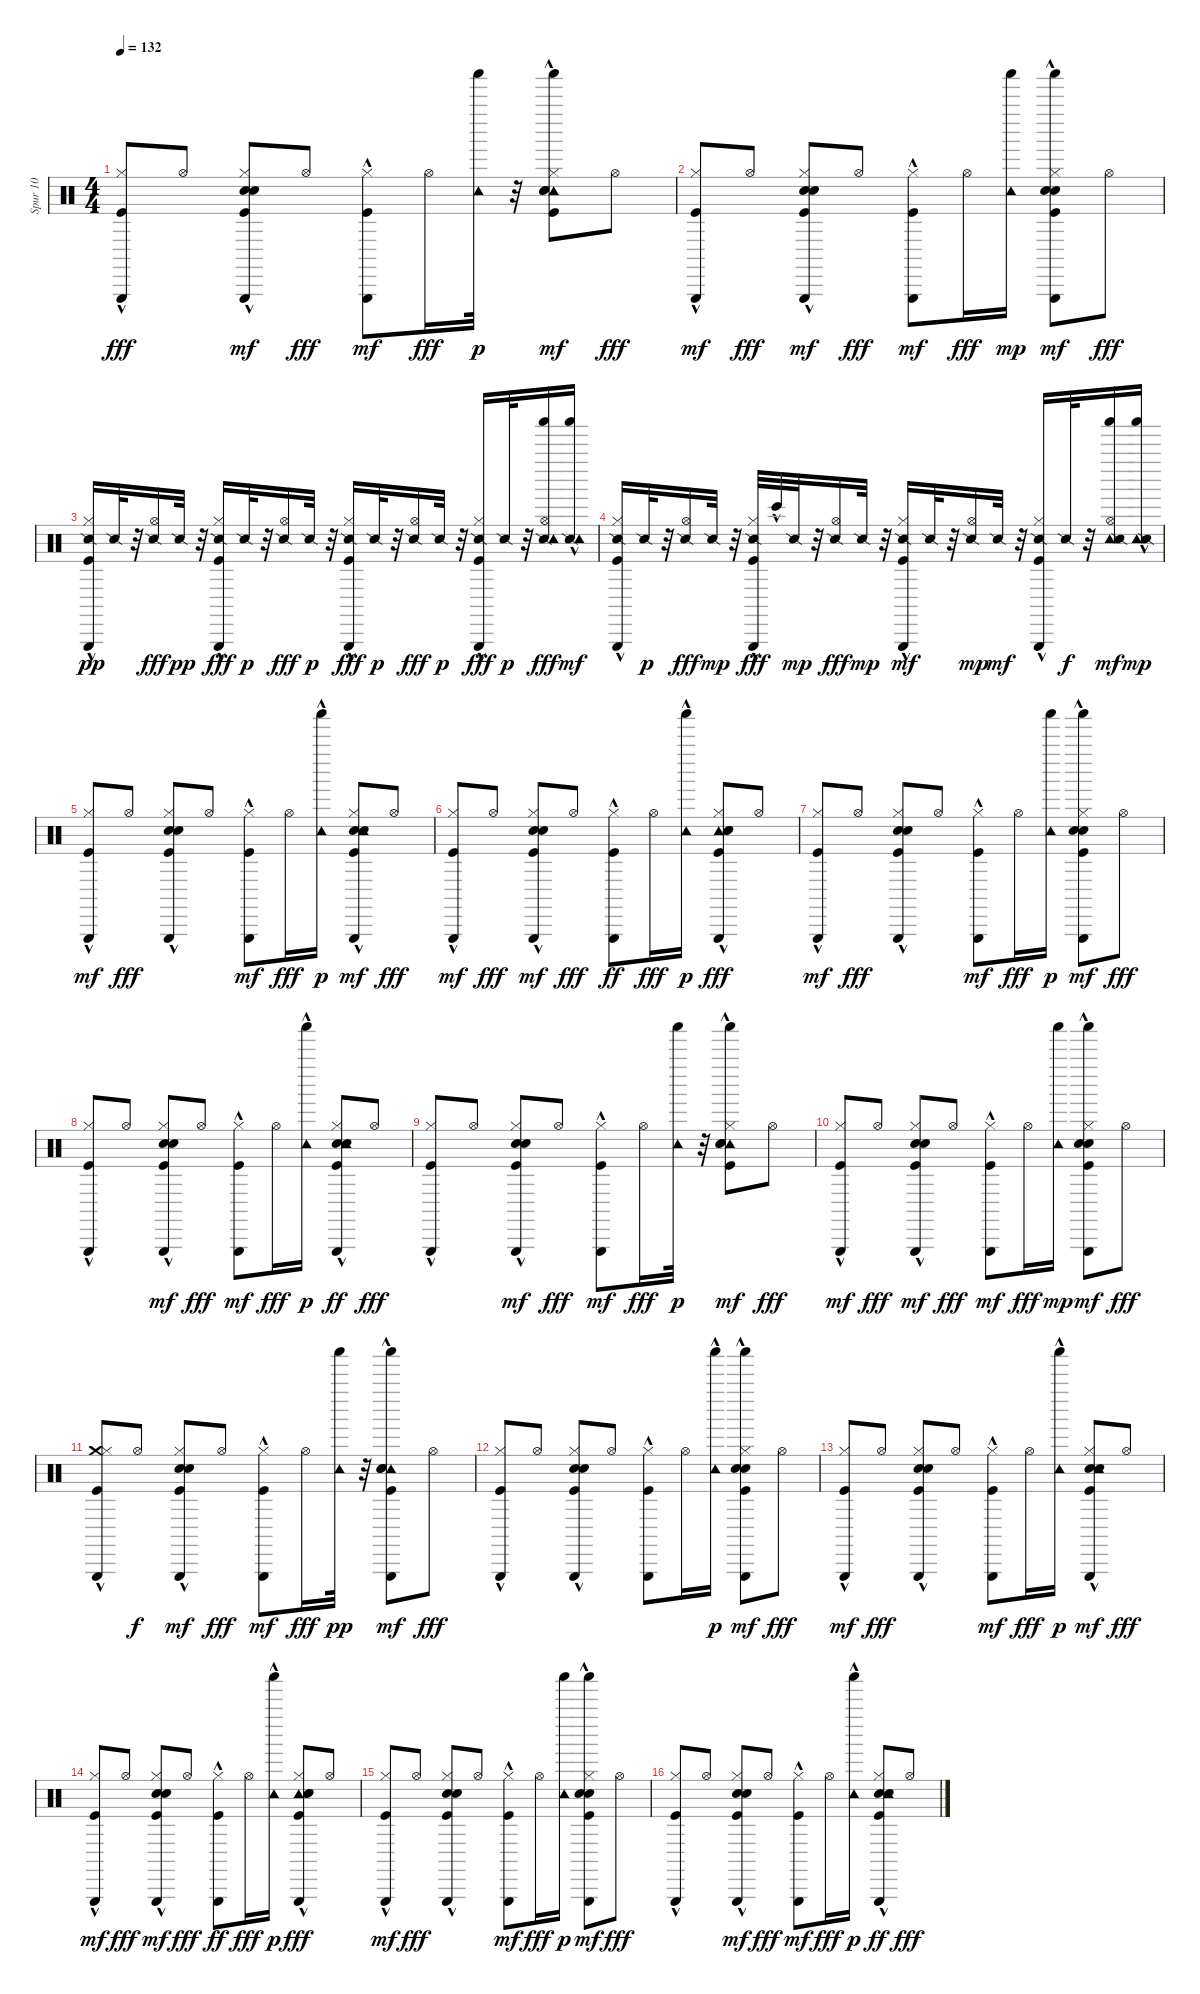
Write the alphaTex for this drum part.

\track ("Spur 10" "Spur 10") {instrument percussion}
\staff {score}
\articulation defaults
\ts (4 4)
\tempo 132
\clef neutral
\ks c
("Triangle (hit)"{hac} "Kick (hit)"{hac} "Hi-Hat (closed)").8{dy fff} "Hi-Hat (open)".8 ("Kick (hit)"{hac} "Hand Clap (hit)"{hac} "Snare (hit) 2"{hac} "Hi-Hat (closed)" "Triangle (hit)"{hac}).8{dy mf} "Hi-Hat (open)".8{dy fff} ("Hi-Hat (closed)" "Kick (hit)"{hac} "Triangle (hit)"{hac}).8{dy mf} "Hi-Hat (open)".16{dy fff} ("Tambourine (hit)" "Shaker (hit)").32{dy p} r.32 ("Shaker (hit)" "Tambourine (hit)"{hac} "Hi-Hat (closed)" "Kick (hit)"{hac} "Hand Clap (hit)"{hac} "Snare (hit) 2"{hac}).8{dy mf} "Hi-Hat (open)".8{dy fff} |
("Hi-Hat (closed)" "Kick (hit)"{hac} "Triangle (hit)"{hac}).8{dy mf} "Hi-Hat (open)".8{dy fff} ("Hi-Hat (closed)" "Kick (hit)"{hac} "Snare (hit) 2"{hac} "Hand Clap (hit)"{hac} "Triangle (hit)"{hac}).8{dy mf} "Hi-Hat (open)".8{dy fff} ("Kick (hit)"{hac} "Hi-Hat (closed)" "Triangle (hit)"{hac}).8{dy mf} "Hi-Hat (open)".16{dy fff} ("Shaker (hit)" "Tambourine (hit)").16{dy mp} ("Shaker (hit)"{hac} "Triangle (hit)"{hac} "Hi-Hat (closed)" "Kick (hit)" "Hand Clap (hit)" "Snare (hit) 2").8{dy mf} "Hi-Hat (open)".8{dy fff} |
("Triangle (hit)"{hac} "Hi-Hat (closed)" "Kick (hit)" "Snare (side stick) 2").16{dy pp} "Snare (side stick) 2".32 r.32 ("Snare (side stick) 2" "Hi-Hat (open)").16{dy fff} "Snare (side stick) 2".32{dy pp} r.32 ("Triangle (hit)"{hac} "Kick (hit)" "Snare (side stick) 2" "Hi-Hat (closed)").16{dy fff} "Snare (side stick) 2".32{dy p} r.32 ("Snare (side stick) 2" "Hi-Hat (open)").16{dy fff} "Snare (side stick) 2".32{dy p} r.32 ("Snare (side stick) 2" "Hi-Hat (closed)" "Kick (hit)" "Triangle (hit)"{hac}).16{dy fff} "Snare (side stick) 2".32{dy p} r.32 ("Snare (side stick) 2" "Hi-Hat (open)").16{dy fff} "Snare (side stick) 2".32{dy p} r.32 ("Triangle (hit)"{hac} "Hi-Hat (closed)" "Snare (side stick) 2" "Kick (hit)").16{dy fff} "Snare (side stick) 2".32{dy p} r.32 ("Shaker (hit)" "Snare (side stick) 2" "Tambourine (hit)" "Hi-Hat (open)").16{dy fff} ("Shaker (hit)"{hac} "Snare (side stick) 2" "Tambourine (hit)").16{dy mf} |
("Snare (side stick) 2" "Hi-Hat (closed)" "Kick (hit)" "Triangle (hit)"{hac}).16 "Snare (side stick) 2".32{dy p} r.32 ("Snare (side stick) 2" "Hi-Hat (open)").16{dy fff} "Snare (side stick) 2".32{dy mp} r.32 ("Triangle (hit)"{hac} "Kick (hit)" "Snare (side stick) 2" "Hi-Hat (closed)").32{dy fff} "Bongo High (hit)"{hac}.32 "Snare (side stick) 2".32{dy mp} r.32 ("Snare (side stick) 2" "Hi-Hat (open)").16{dy fff} "Snare (side stick) 2".32{dy mp} r.32 ("Triangle (hit)"{hac} "Hi-Hat (closed)" "Kick (hit)" "Snare (side stick) 2").16{dy mf} "Snare (side stick) 2".32 r.32 ("Hi-Hat (open)" "Snare (side stick) 2").16{dy mp} "Snare (side stick) 2".32{dy mf} r.32 ("Kick (hit)"{hac} "Hi-Hat (closed)" "Snare (side stick) 2" "Triangle (hit)"{hac}).16 "Snare (side stick) 2".32{dy f} r.32 ("Hi-Hat (open)" "Shaker (hit)" "Tambourine (hit)" "Snare (side stick) 2").16{dy mf} ("Shaker (hit)"{hac} "Tambourine (hit)" "Snare (side stick) 2").16{dy mp} |
("Kick (hit)"{hac} "Hi-Hat (closed)" "Triangle (hit)"{hac}).8{dy mf} "Hi-Hat (open)".8{dy fff} ("Triangle (hit)"{hac} "Kick (hit)"{hac} "Hand Clap (hit)"{hac} "Snare (hit) 2"{hac} "Hi-Hat (closed)").8 "Hi-Hat (open)".8 ("Kick (hit)"{hac} "Hi-Hat (closed)" "Triangle (hit)"{hac}).8{dy mf} "Hi-Hat (open)".16{dy fff} ("Tambourine (hit)" "Shaker (hit)"{hac}).16{dy p} ("Kick (hit)"{hac} "Snare (hit) 2"{hac} "Hand Clap (hit)"{hac} "Hi-Hat (closed)" "Triangle (hit)"{hac} "Tambourine (hit)"{hac}).8{dy mf} "Hi-Hat (open)".8{dy fff} |
("Kick (hit)"{hac} "Hi-Hat (closed)" "Triangle (hit)"{hac}).8{dy mf} "Hi-Hat (open)".8{dy fff} ("Triangle (hit)"{hac} "Hi-Hat (closed)" "Kick (hit)"{hac} "Hand Clap (hit)"{hac} "Snare (hit) 2"{hac}).8{dy mf} "Hi-Hat (open)".8{dy fff} ("Triangle (hit)"{hac} "Kick (hit)"{hac} "Hi-Hat (closed)").8{dy ff} "Hi-Hat (open)".16{dy fff} ("Tambourine (hit)" "Shaker (hit)"{hac}).16{dy p} ("Tambourine (hit)"{hac} "Triangle (hit)"{hac} "Kick (hit)"{hac} "Snare (hit) 2"{hac} "Hand Clap (hit)"{hac} "Hi-Hat (closed)").8{dy fff} "Hi-Hat (open)".8 |
("Kick (hit)"{hac} "Hi-Hat (closed)" "Triangle (hit)"{hac}).8{dy mf} "Hi-Hat (open)".8{dy fff} ("Triangle (hit)"{hac} "Hi-Hat (closed)" "Hand Clap (hit)"{hac} "Snare (hit) 2"{hac} "Kick (hit)"{hac}).8 "Hi-Hat (open)".8 ("Hi-Hat (closed)" "Kick (hit)"{hac} "Triangle (hit)"{hac}).8{dy mf} "Hi-Hat (open)".16{dy fff} ("Shaker (hit)" "Tambourine (hit)").16{dy p} ("Shaker (hit)" "Triangle (hit)"{hac} "Hi-Hat (closed)" "Kick (hit)"{hac} "Hand Clap (hit)"{hac} "Snare (hit) 2"{hac}).8{dy mf} "Hi-Hat (open)".8{dy fff} |
("Triangle (hit)"{hac} "Hi-Hat (closed)" "Kick (hit)"{hac}).8 "Hi-Hat (open)".8 ("Hi-Hat (closed)" "Kick (hit)"{hac} "Snare (hit) 2"{hac} "Hand Clap (hit)"{hac} "Triangle (hit)"{hac}).8{dy mf} "Hi-Hat (open)".8{dy fff} ("Kick (hit)"{hac} "Hi-Hat (closed)" "Triangle (hit)"{hac}).8{dy mf} "Hi-Hat (open)".16{dy fff} ("Tambourine (hit)" "Shaker (hit)"{hac}).16{dy p} ("Triangle (hit)"{hac} "Hi-Hat (closed)" "Hand Clap (hit)"{hac} "Snare (hit) 2"{hac} "Kick (hit)"{hac} "Tambourine (hit)").8{dy ff} "Hi-Hat (open)".8{dy fff} |
("Triangle (hit)"{hac} "Kick (hit)"{hac} "Hi-Hat (closed)").8 "Hi-Hat (open)".8 ("Kick (hit)"{hac} "Hand Clap (hit)"{hac} "Snare (hit) 2"{hac} "Hi-Hat (closed)" "Triangle (hit)"{hac}).8{dy mf} "Hi-Hat (open)".8{dy fff} ("Hi-Hat (closed)" "Kick (hit)"{hac} "Triangle (hit)"{hac}).8{dy mf} "Hi-Hat (open)".16{dy fff} ("Tambourine (hit)" "Shaker (hit)").32{dy p} r.32 ("Shaker (hit)" "Tambourine (hit)"{hac} "Hi-Hat (closed)" "Kick (hit)"{hac} "Hand Clap (hit)"{hac} "Snare (hit) 2"{hac}).8{dy mf} "Hi-Hat (open)".8{dy fff} |
("Hi-Hat (closed)" "Kick (hit)"{hac} "Triangle (hit)"{hac}).8{dy mf} "Hi-Hat (open)".8{dy fff} ("Hi-Hat (closed)" "Kick (hit)"{hac} "Snare (hit) 2"{hac} "Hand Clap (hit)"{hac} "Triangle (hit)"{hac}).8{dy mf} "Hi-Hat (open)".8{dy fff} ("Kick (hit)"{hac} "Hi-Hat (closed)" "Triangle (hit)"{hac}).8{dy mf} "Hi-Hat (open)".16{dy fff} ("Shaker (hit)" "Tambourine (hit)").16{dy mp} ("Shaker (hit)"{hac} "Triangle (hit)"{hac} "Hi-Hat (closed)" "Kick (hit)" "Hand Clap (hit)"{hac} "Snare (hit) 2"{hac}).8{dy mf} "Hi-Hat (open)".8{dy fff} |
("Crash medium (hit)" "Triangle (hit)"{hac} "Hi-Hat (closed)" "Kick (hit)").8 "Hi-Hat (open)".8{dy f} ("Snare (hit) 2"{hac} "Hand Clap (hit)"{hac} "Kick (hit)"{hac} "Hi-Hat (closed)" "Triangle (hit)").8{dy mf} "Hi-Hat (open)".8{dy fff} ("Kick (hit)"{hac} "Hi-Hat (closed)"{hac} "Triangle (hit)"{hac}).8{dy mf} "Hi-Hat (open)".16{dy fff} ("Tambourine (hit)" "Shaker (hit)").32{dy pp} r.32 ("Shaker (hit)" "Tambourine (hit)"{hac} "Triangle (hit)" "Kick (hit)"{hac} "Hand Clap (hit)"{hac} "Snare (hit) 2"{hac}).8{dy mf} "Hi-Hat (open)".8{dy fff} |
("Triangle (hit)"{hac} "Hi-Hat (closed)" "Kick (hit)"{hac}).8 "Hi-Hat (open)".8 ("Triangle (hit)" "Hi-Hat (closed)" "Hand Clap (hit)"{hac} "Snare (hit) 2"{hac} "Kick (hit)"{hac}).8 "Hi-Hat (open)".8 ("Triangle (hit)"{hac} "Hi-Hat (closed)" "Kick (hit)"{hac}).8 "Hi-Hat (open)".16 ("Tambourine (hit)"{hac} "Shaker (hit)").16{dy p} ("Shaker (hit)" "Triangle (hit)"{hac} "Hi-Hat (closed)" "Kick (hit)"{hac} "Hand Clap (hit)"{hac} "Snare (hit) 2"{hac}).8{dy mf} "Hi-Hat (open)".8{dy fff} |
("Kick (hit)"{hac} "Hi-Hat (closed)" "Triangle (hit)"{hac}).8{dy mf} "Hi-Hat (open)".8{dy fff} ("Triangle (hit)"{hac} "Kick (hit)"{hac} "Hand Clap (hit)"{hac} "Snare (hit) 2"{hac} "Hi-Hat (closed)").8 "Hi-Hat (open)".8 ("Kick (hit)"{hac} "Hi-Hat (closed)" "Triangle (hit)"{hac}).8{dy mf} "Hi-Hat (open)".16{dy fff} ("Tambourine (hit)" "Shaker (hit)"{hac}).16{dy p} ("Kick (hit)"{hac} "Snare (hit) 2"{hac} "Hand Clap (hit)"{hac} "Hi-Hat (closed)" "Triangle (hit)"{hac} "Tambourine (hit)"{hac}).8{dy mf} "Hi-Hat (open)".8{dy fff} |
("Kick (hit)"{hac} "Hi-Hat (closed)" "Triangle (hit)"{hac}).8{dy mf} "Hi-Hat (open)".8{dy fff} ("Triangle (hit)"{hac} "Hi-Hat (closed)" "Kick (hit)"{hac} "Hand Clap (hit)"{hac} "Snare (hit) 2"{hac}).8{dy mf} "Hi-Hat (open)".8{dy fff} ("Triangle (hit)"{hac} "Kick (hit)"{hac} "Hi-Hat (closed)").8{dy ff} "Hi-Hat (open)".16{dy fff} ("Tambourine (hit)" "Shaker (hit)"{hac}).16{dy p} ("Tambourine (hit)"{hac} "Triangle (hit)"{hac} "Kick (hit)"{hac} "Snare (hit) 2"{hac} "Hand Clap (hit)"{hac} "Hi-Hat (closed)").8{dy fff} "Hi-Hat (open)".8 |
("Kick (hit)"{hac} "Hi-Hat (closed)" "Triangle (hit)"{hac}).8{dy mf} "Hi-Hat (open)".8{dy fff} ("Triangle (hit)"{hac} "Hi-Hat (closed)" "Hand Clap (hit)"{hac} "Snare (hit) 2"{hac} "Kick (hit)"{hac}).8 "Hi-Hat (open)".8 ("Hi-Hat (closed)" "Kick (hit)"{hac} "Triangle (hit)"{hac}).8{dy mf} "Hi-Hat (open)".16{dy fff} ("Shaker (hit)" "Tambourine (hit)").16{dy p} ("Shaker (hit)" "Triangle (hit)"{hac} "Hi-Hat (closed)" "Kick (hit)"{hac} "Hand Clap (hit)"{hac} "Snare (hit) 2"{hac}).8{dy mf} "Hi-Hat (open)".8{dy fff} |
("Triangle (hit)"{hac} "Hi-Hat (closed)" "Kick (hit)"{hac}).8 "Hi-Hat (open)".8 ("Hi-Hat (closed)" "Kick (hit)"{hac} "Snare (hit) 2"{hac} "Hand Clap (hit)"{hac} "Triangle (hit)"{hac}).8{dy mf} "Hi-Hat (open)".8{dy fff} ("Kick (hit)"{hac} "Hi-Hat (closed)" "Triangle (hit)"{hac}).8{dy mf} "Hi-Hat (open)".16{dy fff} ("Tambourine (hit)" "Shaker (hit)"{hac}).16{dy p} ("Triangle (hit)"{hac} "Hi-Hat (closed)" "Hand Clap (hit)"{hac} "Snare (hit) 2"{hac} "Kick (hit)"{hac} "Tambourine (hit)").8{dy ff} "Hi-Hat (open)".8{dy fff}
